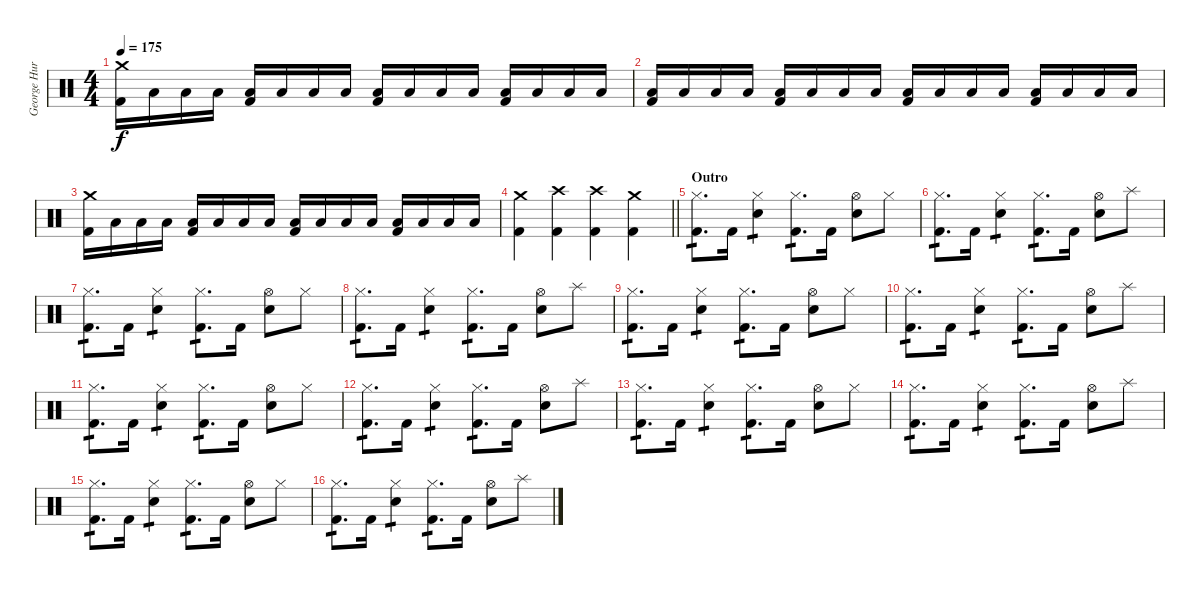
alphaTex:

\track ("George Hurley [Drums]" "George Hur") {instrument percussion}
\staff {score}
\articulation defaults
\ts (4 4)
\tempo 175
\clef neutral
\ks c
("Crash medium (hit)" "Kick (hit) 2").16{dy f} "Low Tom (hit)".16 "Low Tom (hit)".16 "Low Tom (hit)".16 ("Low Tom (hit)" "Kick (hit) 2").16 "Low Tom (hit)".16 "Low Tom (hit)".16 "Low Tom (hit)".16 ("Low Tom (hit)" "Kick (hit) 2").16 "Low Tom (hit)".16 "Low Tom (hit)".16 "Low Tom (hit)".16 ("Low Tom (hit)" "Kick (hit) 2").16 "Low Tom (hit)".16 "Low Tom (hit)".16 "Low Tom (hit)".16 |
("Low Tom (hit)" "Kick (hit) 2").16 "Low Tom (hit)".16 "Low Tom (hit)".16 "Low Tom (hit)".16 ("Low Tom (hit)" "Kick (hit) 2").16 "Low Tom (hit)".16 "Low Tom (hit)".16 "Low Tom (hit)".16 ("Low Tom (hit)" "Kick (hit) 2").16 "Low Tom (hit)".16 "Low Tom (hit)".16 "Low Tom (hit)".16 ("Low Tom (hit)" "Kick (hit) 2").16 "Low Tom (hit)".16 "Low Tom (hit)".16 "Low Tom (hit)".16 |
("Crash medium (hit)" "Kick (hit) 2").16 "Low Tom (hit)".16 "Low Tom (hit)".16 "Low Tom (hit)".16 ("Low Tom (hit)" "Kick (hit) 2").16 "Low Tom (hit)".16 "Low Tom (hit)".16 "Low Tom (hit)".16 ("Low Tom (hit)" "Kick (hit) 2").16 "Low Tom (hit)".16 "Low Tom (hit)".16 "Low Tom (hit)".16 ("Low Tom (hit)" "Kick (hit) 2").16 "Low Tom (hit)".16 "Low Tom (hit)".16 "Low Tom (hit)".16 |
\barLineRight lightlight
("Crash medium (hit)" "Kick (hit) 2").4 ("Crash high (hit)" "Kick (hit) 2").4 ("Crash high (hit)" "Kick (hit) 2").4 ("Crash medium (hit)" "Kick (hit) 2").4 |
\section ("" "Outro")
("Hi-Hat (closed)" "Kick (hit) 2").8{d tp 1} "Kick (hit) 2".16 ("Hi-Hat (closed)" "Electric Snare (hit)").4{tp 1} ("Hi-Hat (closed)" "Kick (hit) 2").8{d tp 1} "Kick (hit) 2".16 ("Hi-Hat (open)" "Electric Snare (hit)").8 "Hi-Hat (closed)".8 |
("Hi-Hat (closed)" "Kick (hit) 2").8{d tp 1} "Kick (hit) 2".16 ("Hi-Hat (closed)" "Electric Snare (hit)").4{tp 1} ("Hi-Hat (closed)" "Kick (hit) 2").8{d tp 1} "Kick (hit) 2".16 ("Hi-Hat (open)" "Electric Snare (hit)").8 "Splash (hit)".8 |
("Hi-Hat (closed)" "Kick (hit) 2").8{d tp 1} "Kick (hit) 2".16 ("Hi-Hat (closed)" "Electric Snare (hit)").4{tp 1} ("Hi-Hat (closed)" "Kick (hit) 2").8{d tp 1} "Kick (hit) 2".16 ("Hi-Hat (open)" "Electric Snare (hit)").8 "Hi-Hat (closed)".8 |
("Hi-Hat (closed)" "Kick (hit) 2").8{d tp 1} "Kick (hit) 2".16 ("Hi-Hat (closed)" "Electric Snare (hit)").4{tp 1} ("Hi-Hat (closed)" "Kick (hit) 2").8{d tp 1} "Kick (hit) 2".16 ("Hi-Hat (open)" "Electric Snare (hit)").8 "Splash (hit)".8 |
("Hi-Hat (closed)" "Kick (hit) 2").8{d tp 1} "Kick (hit) 2".16 ("Hi-Hat (closed)" "Electric Snare (hit)").4{tp 1} ("Hi-Hat (closed)" "Kick (hit) 2").8{d tp 1} "Kick (hit) 2".16 ("Hi-Hat (open)" "Electric Snare (hit)").8 "Hi-Hat (closed)".8 |
("Hi-Hat (closed)" "Kick (hit) 2").8{d tp 1} "Kick (hit) 2".16 ("Hi-Hat (closed)" "Electric Snare (hit)").4{tp 1} ("Hi-Hat (closed)" "Kick (hit) 2").8{d tp 1} "Kick (hit) 2".16 ("Hi-Hat (open)" "Electric Snare (hit)").8 "Splash (hit)".8 |
("Hi-Hat (closed)" "Kick (hit) 2").8{d tp 1} "Kick (hit) 2".16 ("Hi-Hat (closed)" "Electric Snare (hit)").4{tp 1} ("Hi-Hat (closed)" "Kick (hit) 2").8{d tp 1} "Kick (hit) 2".16 ("Hi-Hat (open)" "Electric Snare (hit)").8 "Hi-Hat (closed)".8 |
("Hi-Hat (closed)" "Kick (hit) 2").8{d tp 1} "Kick (hit) 2".16 ("Hi-Hat (closed)" "Electric Snare (hit)").4{tp 1} ("Hi-Hat (closed)" "Kick (hit) 2").8{d tp 1} "Kick (hit) 2".16 ("Hi-Hat (open)" "Electric Snare (hit)").8 "Splash (hit)".8 |
("Hi-Hat (closed)" "Kick (hit) 2").8{d tp 1} "Kick (hit) 2".16 ("Hi-Hat (closed)" "Electric Snare (hit)").4{tp 1} ("Hi-Hat (closed)" "Kick (hit) 2").8{d tp 1} "Kick (hit) 2".16 ("Hi-Hat (open)" "Electric Snare (hit)").8 "Hi-Hat (closed)".8 |
("Hi-Hat (closed)" "Kick (hit) 2").8{d tp 1} "Kick (hit) 2".16 ("Hi-Hat (closed)" "Electric Snare (hit)").4{tp 1} ("Hi-Hat (closed)" "Kick (hit) 2").8{d tp 1} "Kick (hit) 2".16 ("Hi-Hat (open)" "Electric Snare (hit)").8 "Splash (hit)".8 |
("Hi-Hat (closed)" "Kick (hit) 2").8{d tp 1} "Kick (hit) 2".16 ("Hi-Hat (closed)" "Electric Snare (hit)").4{tp 1} ("Hi-Hat (closed)" "Kick (hit) 2").8{d tp 1} "Kick (hit) 2".16 ("Hi-Hat (open)" "Electric Snare (hit)").8 "Hi-Hat (closed)".8 |
("Hi-Hat (closed)" "Kick (hit) 2").8{d tp 1} "Kick (hit) 2".16 ("Hi-Hat (closed)" "Electric Snare (hit)").4{tp 1} ("Hi-Hat (closed)" "Kick (hit) 2").8{d tp 1} "Kick (hit) 2".16 ("Hi-Hat (open)" "Electric Snare (hit)").8 "Splash (hit)".8
